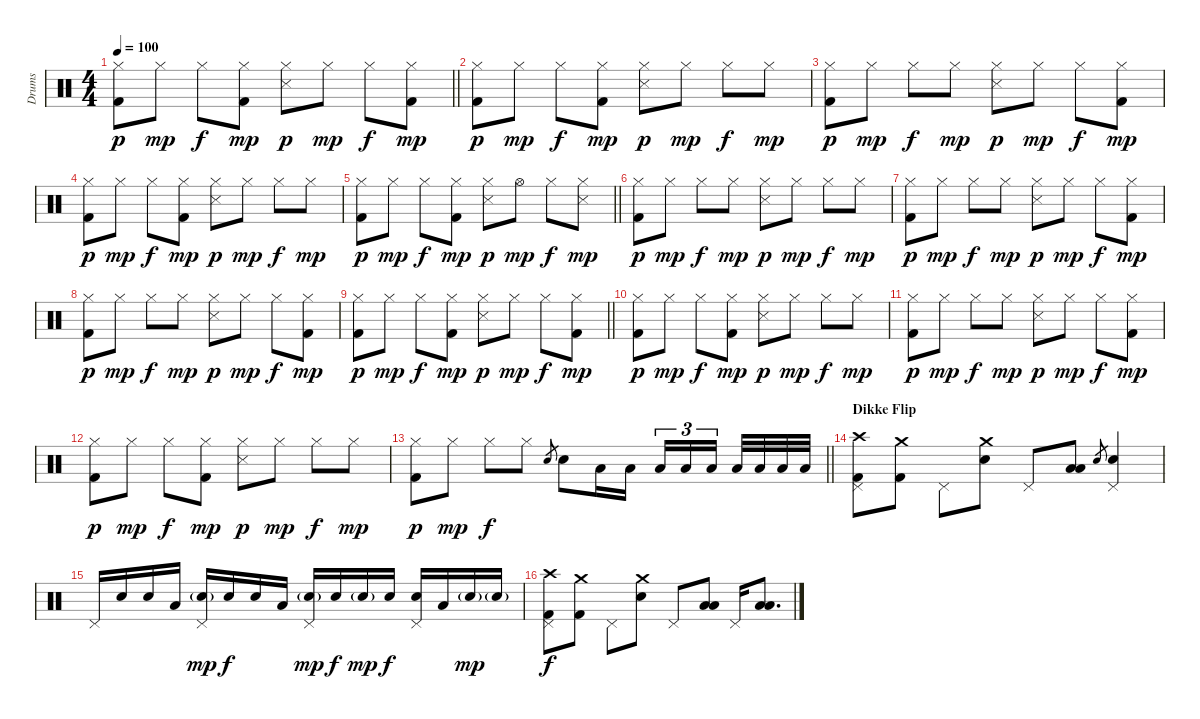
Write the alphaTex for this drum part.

\track ("Drums" "Drums") {instrument percussion}
\staff {score}
\articulation defaults
\ts (4 4)
\tempo 100
\clef neutral
\barLineRight lightlight
\ks c
("Hi-Hat (closed)" "Kick (hit) 2").8{dy p} "Hi-Hat (closed)".8{dy mp} "Hi-Hat (closed)".8{dy f} ("Hi-Hat (closed)" "Kick (hit) 2").8{dy mp} ("Hi-Hat (closed)" "Snare (side stick) 3").8{dy p} "Hi-Hat (closed)".8{dy mp} "Hi-Hat (closed)".8{dy f} ("Hi-Hat (closed)" "Kick (hit) 2").8{dy mp} |
("Hi-Hat (closed)" "Kick (hit) 2").8{dy p} "Hi-Hat (closed)".8{dy mp} "Hi-Hat (closed)".8{dy f} ("Hi-Hat (closed)" "Kick (hit) 2").8{dy mp} ("Hi-Hat (closed)" "Snare (side stick) 3").8{dy p} "Hi-Hat (closed)".8{dy mp} "Hi-Hat (closed)".8{dy f} "Hi-Hat (closed)".8{dy mp} |
("Hi-Hat (closed)" "Kick (hit) 2").8{dy p} "Hi-Hat (closed)".8{dy mp} "Hi-Hat (closed)".8{dy f} "Hi-Hat (closed)".8{dy mp} ("Hi-Hat (closed)" "Snare (side stick) 3").8{dy p} "Hi-Hat (closed)".8{dy mp} "Hi-Hat (closed)".8{dy f} ("Hi-Hat (closed)" "Kick (hit) 2").8{dy mp} |
("Hi-Hat (closed)" "Kick (hit) 2").8{dy p} "Hi-Hat (closed)".8{dy mp} "Hi-Hat (closed)".8{dy f} ("Hi-Hat (closed)" "Kick (hit) 2").8{dy mp} ("Hi-Hat (closed)" "Snare (side stick) 3").8{dy p} "Hi-Hat (closed)".8{dy mp} "Hi-Hat (closed)".8{dy f} "Hi-Hat (closed)".8{dy mp} |
\barLineRight lightlight
("Hi-Hat (closed)" "Kick (hit) 2").8{dy p} "Hi-Hat (closed)".8{dy mp} "Hi-Hat (closed)".8{dy f} ("Hi-Hat (closed)" "Kick (hit) 2").8{dy mp} ("Hi-Hat (closed)" "Snare (side stick) 3").8{dy p} "Hi-Hat (open)".8{dy mp} "Hi-Hat (closed)".8{dy f} ("Hi-Hat (closed)" "Snare (side stick) 3").8{dy mp} |
("Hi-Hat (closed)" "Kick (hit) 2").8{dy p} "Hi-Hat (closed)".8{dy mp} "Hi-Hat (closed)".8{dy f} "Hi-Hat (closed)".8{dy mp} ("Hi-Hat (closed)" "Snare (side stick) 3").8{dy p} "Hi-Hat (closed)".8{dy mp} "Hi-Hat (closed)".8{dy f} "Hi-Hat (closed)".8{dy mp} |
("Hi-Hat (closed)" "Kick (hit) 2").8{dy p} "Hi-Hat (closed)".8{dy mp} "Hi-Hat (closed)".8{dy f} "Hi-Hat (closed)".8{dy mp} ("Hi-Hat (closed)" "Snare (side stick) 3").8{dy p} "Hi-Hat (closed)".8{dy mp} "Hi-Hat (closed)".8{dy f} ("Hi-Hat (closed)" "Kick (hit) 2").8{dy mp} |
("Hi-Hat (closed)" "Kick (hit) 2").8{dy p} "Hi-Hat (closed)".8{dy mp} "Hi-Hat (closed)".8{dy f} "Hi-Hat (closed)".8{dy mp} ("Hi-Hat (closed)" "Snare (side stick) 3").8{dy p} "Hi-Hat (closed)".8{dy mp} "Hi-Hat (closed)".8{dy f} ("Hi-Hat (closed)" "Kick (hit) 2").8{dy mp} |
\barLineRight lightlight
("Hi-Hat (closed)" "Kick (hit) 2").8{dy p} "Hi-Hat (closed)".8{dy mp} "Hi-Hat (closed)".8{dy f} ("Hi-Hat (closed)" "Kick (hit) 2").8{dy mp} ("Hi-Hat (closed)" "Snare (side stick) 3").8{dy p} "Hi-Hat (closed)".8{dy mp} "Hi-Hat (closed)".8{dy f} ("Hi-Hat (closed)" "Kick (hit) 2").8{dy mp} |
("Hi-Hat (closed)" "Kick (hit) 2").8{dy p} "Hi-Hat (closed)".8{dy mp} "Hi-Hat (closed)".8{dy f} ("Hi-Hat (closed)" "Kick (hit) 2").8{dy mp} ("Hi-Hat (closed)" "Snare (side stick) 3").8{dy p} "Hi-Hat (closed)".8{dy mp} "Hi-Hat (closed)".8{dy f} "Hi-Hat (closed)".8{dy mp} |
("Hi-Hat (closed)" "Kick (hit) 2").8{dy p} "Hi-Hat (closed)".8{dy mp} "Hi-Hat (closed)".8{dy f} "Hi-Hat (closed)".8{dy mp} ("Hi-Hat (closed)" "Snare (side stick) 3").8{dy p} "Hi-Hat (closed)".8{dy mp} "Hi-Hat (closed)".8{dy f} ("Hi-Hat (closed)" "Kick (hit) 2").8{dy mp} |
("Hi-Hat (closed)" "Kick (hit) 2").8{dy p} "Hi-Hat (closed)".8{dy mp} "Hi-Hat (closed)".8{dy f} ("Hi-Hat (closed)" "Kick (hit) 2").8{dy mp} ("Hi-Hat (closed)" "Snare (side stick) 3").8{dy p} "Hi-Hat (closed)".8{dy mp} "Hi-Hat (closed)".8{dy f} "Hi-Hat (closed)".8{dy mp} |
\barLineRight lightlight
("Hi-Hat (closed)" "Kick (hit) 2").8{dy p} "Hi-Hat (closed)".8{dy mp} "Hi-Hat (closed)".8{dy f} "Hi-Hat (closed)".8 "Snare (hit) 2".8{gr} "Snare (hit) 2".8 "Low Tom (hit)".16 "Low Tom (hit)".16 "Low Tom (hit)".16{tu (3 2)} "Low Tom (hit)".16{tu (3 2)} "Low Tom (hit)".16{tu (3 2) beam splitsecondary} "Low Floor Tom (hit)".32 "Low Floor Tom (hit)".32 "Low Floor Tom (hit)".32 "Low Floor Tom (hit)".32 |
\section ("" "Dikke Flip")
("Crash high (hit)" "Pedal Hi-Hat (hit)" "Kick (hit) 2").8 ("Crash medium (hit)" "Kick (hit) 2").8 "Pedal Hi-Hat (hit)".8 ("Crash medium (hit)" "Snare (hit) 2").8 "Pedal Hi-Hat (hit)".8 ("Low Tom (hit)" "Low Floor Tom (hit)").8 "Snare (hit) 2".8{gr} ("Pedal Hi-Hat (hit)" "Snare (hit) 2").4 |
"Pedal Hi-Hat (hit)".16 "Snare (hit) 2".16 "Snare (hit) 2".16 "Low Tom (hit)".16 ("Pedal Hi-Hat (hit)" "Snare (hit) 2"{g}).16{dy mp} "Snare (hit) 2".16{dy f} "Snare (hit) 2".16 "Low Tom (hit)".16 ("Pedal Hi-Hat (hit)" "Snare (hit) 2"{g}).16{dy mp} "Snare (hit) 2".16{dy f} "Snare (hit) 2"{g}.16{dy mp} "Snare (hit) 2".16{dy f} ("Pedal Hi-Hat (hit)" "Snare (hit) 2").16 "Low Tom (hit)".16 "Snare (hit) 2"{g}.16{dy mp} "Snare (hit) 2"{g}.16 |
("Crash high (hit)" "Pedal Hi-Hat (hit)" "Kick (hit) 2").8{dy f} ("Crash medium (hit)" "Kick (hit) 2").8 "Pedal Hi-Hat (hit)".8 ("Crash medium (hit)" "Snare (hit) 2").8 "Pedal Hi-Hat (hit)".8 ("Low Tom (hit)" "Low Floor Tom (hit)").8 "Pedal Hi-Hat (hit)".16 ("Low Tom (hit)" "Low Floor Tom (hit)").8{d}
